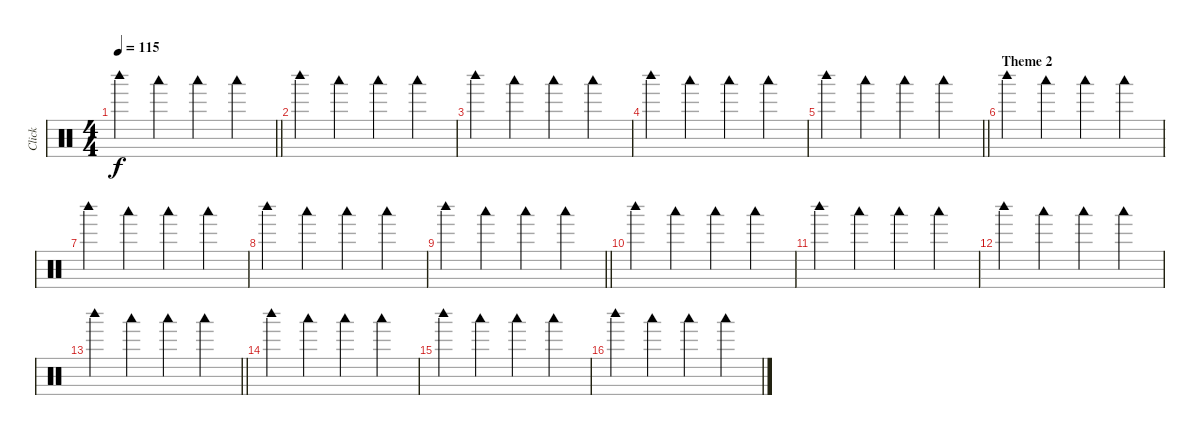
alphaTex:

\track ("Click" "Click") {mute instrument percussion}
\staff {score}
\articulation defaults
\ts (4 4)
\tempo 115
\clef neutral
\barLineRight lightlight
\ks c "Woodblock high (hit)".4{dy f} "Woodblock low (hit)".4 "Woodblock low (hit)".4 "Woodblock low (hit)".4
|
"Woodblock high (hit)".4 "Woodblock low (hit)".4 "Woodblock low (hit)".4 "Woodblock low (hit)".4 |
"Woodblock high (hit)".4 "Woodblock low (hit)".4 "Woodblock low (hit)".4 "Woodblock low (hit)".4 |
"Woodblock high (hit)".4 "Woodblock low (hit)".4 "Woodblock low (hit)".4 "Woodblock low (hit)".4 |
\barLineRight lightlight "Woodblock high (hit)".4 "Woodblock low (hit)".4 "Woodblock low (hit)".4 "Woodblock low (hit)".4
|
\section ("" "Theme 2")
"Woodblock high (hit)".4 "Woodblock low (hit)".4 "Woodblock low (hit)".4 "Woodblock low (hit)".4 |
"Woodblock high (hit)".4 "Woodblock low (hit)".4 "Woodblock low (hit)".4 "Woodblock low (hit)".4 |
"Woodblock high (hit)".4 "Woodblock low (hit)".4 "Woodblock low (hit)".4 "Woodblock low (hit)".4 |
\barLineRight lightlight "Woodblock high (hit)".4 "Woodblock low (hit)".4 "Woodblock low (hit)".4 "Woodblock low (hit)".4
|
"Woodblock high (hit)".4 "Woodblock low (hit)".4 "Woodblock low (hit)".4 "Woodblock low (hit)".4 |
"Woodblock high (hit)".4 "Woodblock low (hit)".4 "Woodblock low (hit)".4 "Woodblock low (hit)".4 |
"Woodblock high (hit)".4 "Woodblock low (hit)".4 "Woodblock low (hit)".4 "Woodblock low (hit)".4 |
\barLineRight lightlight "Woodblock high (hit)".4 "Woodblock low (hit)".4 "Woodblock low (hit)".4 "Woodblock low (hit)".4
|
"Woodblock high (hit)".4 "Woodblock low (hit)".4 "Woodblock low (hit)".4 "Woodblock low (hit)".4 |
"Woodblock high (hit)".4 "Woodblock low (hit)".4 "Woodblock low (hit)".4 "Woodblock low (hit)".4 |
"Woodblock high (hit)".4 "Woodblock low (hit)".4 "Woodblock low (hit)".4 "Woodblock low (hit)".4
